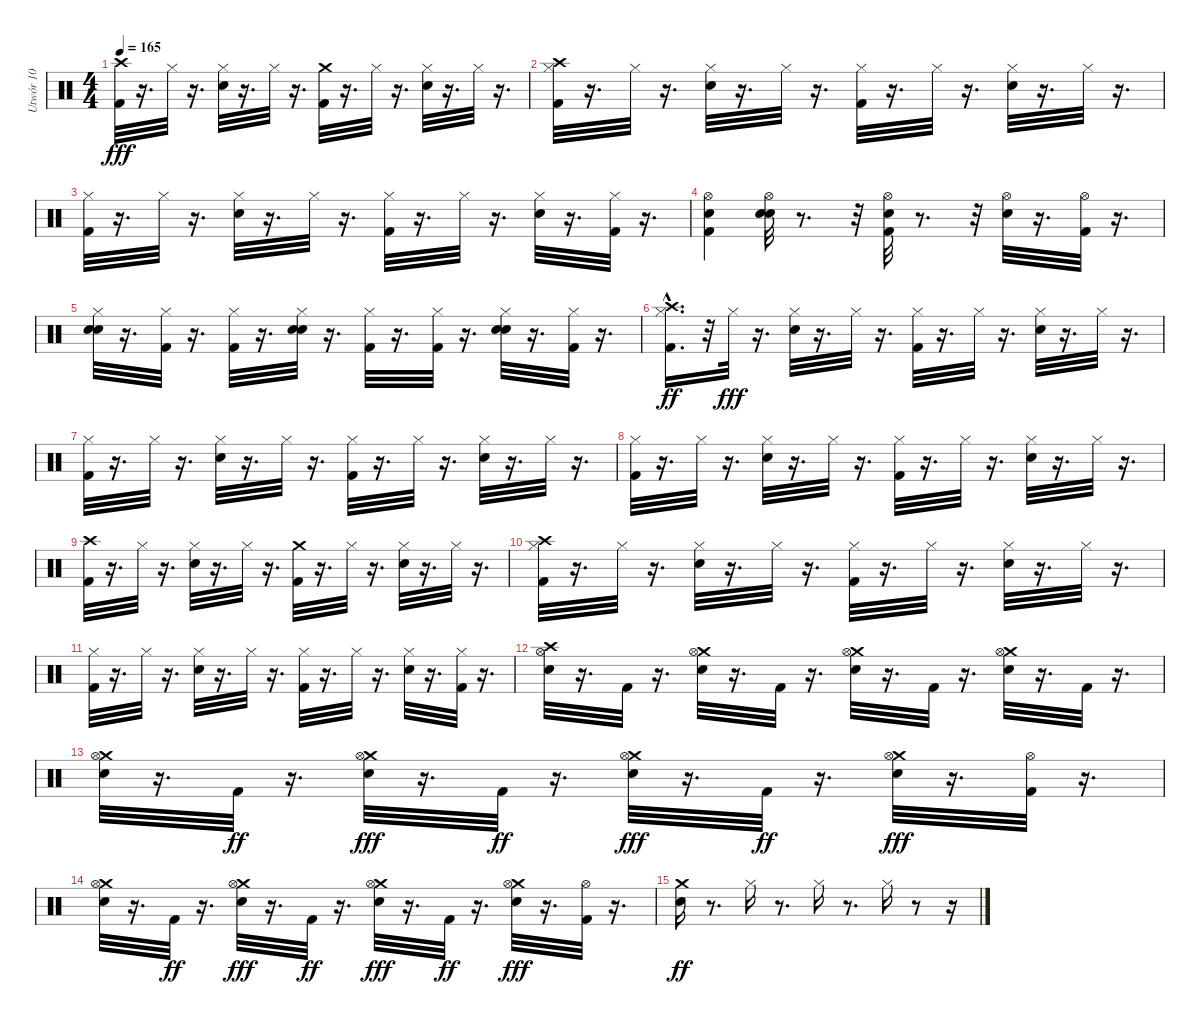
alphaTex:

\track ("Utwór 10" "Utwór 10") {instrument percussion}
\staff {score}
\articulation defaults
\ts (4 4)
\tempo 165
\clef neutral
\ks c
("Crash high (hit)" "Kick (hit) 2").32{dy fff} r.16{d} "Hi-Hat (closed)".32 r.16{d} ("Hi-Hat (closed)" "Electric Snare (hit)").32 r.16{d} "Hi-Hat (closed)".32 r.16{d} ("Crash medium (hit)" "Kick (hit) 2").32 r.16{d} "Hi-Hat (closed)".32 r.16{d} ("Hi-Hat (closed)" "Electric Snare (hit)").32 r.16{d} "Hi-Hat (closed)".32 r.16{d} |
("Crash high (hit)" "Hi-Hat (closed)" "Kick (hit) 2").32 r.16{d} "Hi-Hat (closed)".32 r.16{d} ("Hi-Hat (closed)" "Electric Snare (hit)").32 r.16{d} "Hi-Hat (closed)".32 r.16{d} ("Hi-Hat (closed)" "Kick (hit) 2").32 r.16{d} "Hi-Hat (closed)".32 r.16{d} ("Hi-Hat (closed)" "Electric Snare (hit)").32 r.16{d} "Hi-Hat (closed)".32 r.16{d} |
("Hi-Hat (closed)" "Kick (hit) 2").32 r.16{d} "Hi-Hat (closed)".32 r.16{d} ("Hi-Hat (closed)" "Electric Snare (hit)").32 r.16{d} "Hi-Hat (closed)".32 r.16{d} ("Hi-Hat (closed)" "Kick (hit) 2").32 r.16{d} "Hi-Hat (closed)".32 r.16{d} ("Hi-Hat (closed)" "Electric Snare (hit)").32 r.16{d} ("Kick (hit) 2" "Hi-Hat (closed)").32 r.16{d} |
("Electric Snare (hit)" "Hi-Hat (open)" "Kick (hit) 2").4 ("Electric Snare (hit)" "Hi-Hat (open)" "Electric Snare (hit)").32 r.8{d} r.32 ("Electric Snare (hit)" "Hi-Hat (open)" "Kick (hit) 2").32 r.8{d} r.32 ("Hi-Hat (open)" "Electric Snare (hit)").32 r.16{d} ("Kick (hit) 2" "Hi-Hat (open)").32 r.16{d} |
("Electric Snare (hit)" "Hi-Hat (closed)" "Electric Snare (hit)").32 r.16{d} ("Kick (hit) 2" "Hi-Hat (closed)").32 r.16{d} ("Hi-Hat (closed)" "Kick (hit) 2").32 r.16{d} ("Electric Snare (hit)" "Electric Snare (hit)" "Hi-Hat (closed)").32 r.16{d} ("Hi-Hat (closed)" "Kick (hit) 2").32 r.16{d} ("Hi-Hat (closed)" "Kick (hit) 2").32 r.16{d} ("Electric Snare (hit)" "Hi-Hat (closed)" "Electric Snare (hit)").32 r.16{d} ("Kick (hit) 2" "Hi-Hat (closed)").32 r.16{d} |
("Kick (hit) 2" "Hi-Hat (closed)" "Crash high (hit)"{hac}).16{d dy ff} r.32 "Hi-Hat (closed)".32{dy fff} r.16{d} ("Hi-Hat (closed)" "Electric Snare (hit)").32 r.16{d} "Hi-Hat (closed)".32 r.16{d} ("Hi-Hat (closed)" "Kick (hit) 2").32 r.16{d} "Hi-Hat (closed)".32 r.16{d} ("Hi-Hat (closed)" "Electric Snare (hit)").32 r.16{d} "Hi-Hat (closed)".32 r.16{d} |
("Hi-Hat (closed)" "Kick (hit) 2").32 r.16{d} "Hi-Hat (closed)".32 r.16{d} ("Hi-Hat (closed)" "Electric Snare (hit)").32 r.16{d} "Hi-Hat (closed)".32 r.16{d} ("Hi-Hat (closed)" "Kick (hit) 2").32 r.16{d} "Hi-Hat (closed)".32 r.16{d} ("Hi-Hat (closed)" "Electric Snare (hit)").32 r.16{d} "Hi-Hat (closed)".32 r.16{d} |
("Hi-Hat (closed)" "Kick (hit) 2").32 r.16{d} "Hi-Hat (closed)".32 r.16{d} ("Hi-Hat (closed)" "Electric Snare (hit)").32 r.16{d} "Hi-Hat (closed)".32 r.16{d} ("Hi-Hat (closed)" "Kick (hit) 2").32 r.16{d} "Hi-Hat (closed)".32 r.16{d} ("Hi-Hat (closed)" "Electric Snare (hit)").32 r.16{d} "Hi-Hat (closed)".32 r.16{d} |
("Crash high (hit)" "Kick (hit) 2").32 r.16{d} "Hi-Hat (closed)".32 r.16{d} ("Hi-Hat (closed)" "Electric Snare (hit)").32 r.16{d} "Hi-Hat (closed)".32 r.16{d} ("Crash medium (hit)" "Kick (hit) 2").32 r.16{d} "Hi-Hat (closed)".32 r.16{d} ("Hi-Hat (closed)" "Electric Snare (hit)").32 r.16{d} "Hi-Hat (closed)".32 r.16{d} |
("Crash high (hit)" "Hi-Hat (closed)" "Kick (hit) 2").32 r.16{d} "Hi-Hat (closed)".32 r.16{d} ("Hi-Hat (closed)" "Electric Snare (hit)").32 r.16{d} "Hi-Hat (closed)".32 r.16{d} ("Hi-Hat (closed)" "Kick (hit) 2").32 r.16{d} "Hi-Hat (closed)".32 r.16{d} ("Hi-Hat (closed)" "Electric Snare (hit)").32 r.16{d} "Hi-Hat (closed)".32 r.16{d} |
("Hi-Hat (closed)" "Kick (hit) 2").32 r.16{d} "Hi-Hat (closed)".32 r.16{d} ("Hi-Hat (closed)" "Electric Snare (hit)").32 r.16{d} "Hi-Hat (closed)".32 r.16{d} ("Hi-Hat (closed)" "Kick (hit) 2").32 r.16{d} "Hi-Hat (closed)".32 r.16{d} ("Hi-Hat (closed)" "Electric Snare (hit)").32 r.16{d} ("Kick (hit) 2" "Hi-Hat (closed)").32 r.16{d} |
("Electric Snare (hit)" "Crash high (hit)" "Hi-Hat (open)").32 r.16{d} "Kick (hit) 2".32 r.16{d} ("Crash medium (hit)" "Hi-Hat (open)" "Electric Snare (hit)").32 r.16{d} "Kick (hit) 2".32 r.16{d} ("Crash medium (hit)" "Electric Snare (hit)" "Hi-Hat (open)").32 r.16{d} "Kick (hit) 2".32 r.16{d} ("Crash medium (hit)" "Hi-Hat (open)" "Electric Snare (hit)").32 r.16{d} "Kick (hit) 2".32 r.16{d} |
("Crash medium (hit)" "Electric Snare (hit)" "Hi-Hat (open)").32 r.16{d} "Kick (hit) 2".32{dy ff} r.16{d} ("Crash medium (hit)" "Hi-Hat (open)" "Electric Snare (hit)").32{dy fff} r.16{d} "Kick (hit) 2".32{dy ff} r.16{d} ("Crash medium (hit)" "Electric Snare (hit)" "Hi-Hat (open)").32{dy fff} r.16{d} "Kick (hit) 2".32{dy ff} r.16{d} ("Crash medium (hit)" "Hi-Hat (open)" "Electric Snare (hit)").32{dy fff} r.16{d} ("Kick (hit) 2" "Hi-Hat (open)").32 r.16{d} |
("Crash medium (hit)" "Electric Snare (hit)" "Hi-Hat (open)").32 r.16{d} "Kick (hit) 2".32{dy ff} r.16{d} ("Crash medium (hit)" "Hi-Hat (open)" "Electric Snare (hit)").32{dy fff} r.16{d} "Kick (hit) 2".32{dy ff} r.16{d} ("Crash medium (hit)" "Electric Snare (hit)" "Hi-Hat (open)").32{dy fff} r.16{d} "Kick (hit) 2".32{dy ff} r.16{d} ("Crash medium (hit)" "Hi-Hat (open)" "Electric Snare (hit)").32{dy fff} r.16{d} ("Kick (hit) 2" "Hi-Hat (open)").32 r.16{d} |
("Crash medium (hit)" "Snare (hit) 2").16{dy ff} r.8{d} "Hi-Hat (closed)".16 r.8{d} "Hi-Hat (closed)".16 r.8{d} "Hi-Hat (closed)".16 r.8 r.16
